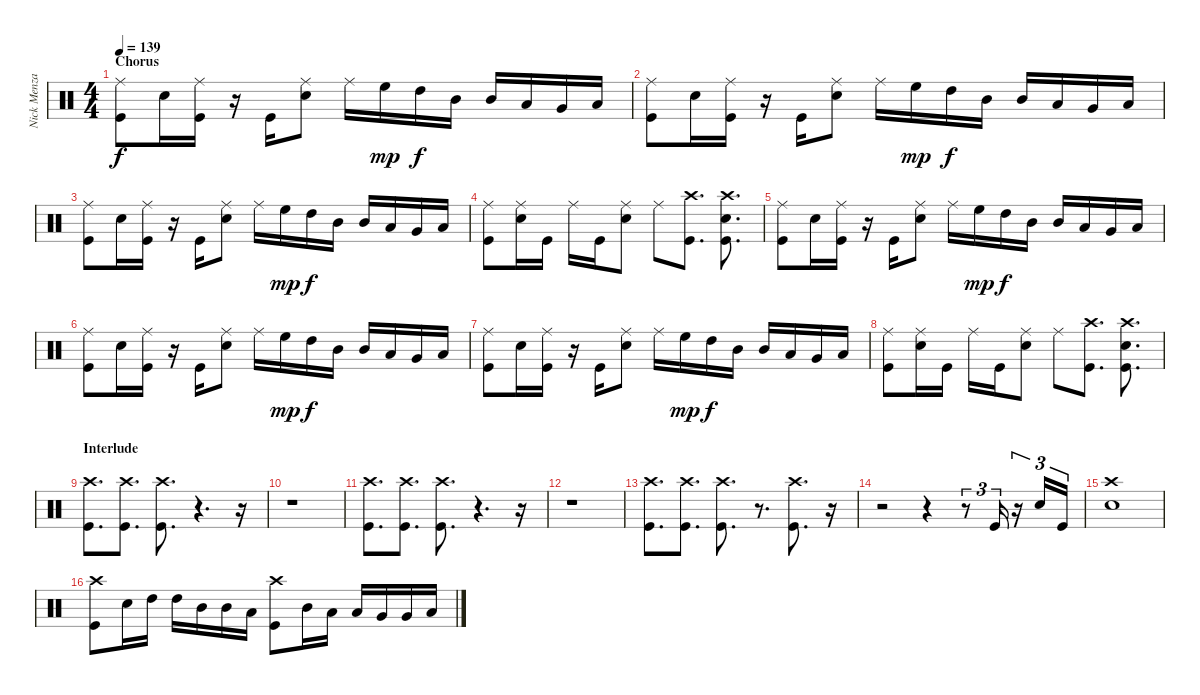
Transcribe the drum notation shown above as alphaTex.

\track ("Nick Menza" "Nick Menza") {instrument percussion}
\staff {score}
\articulation defaults
\ts (4 4)
\section ("" "Chorus")
\tempo 139
\clef neutral
\ks c
("Ride (middle)" "Kick (hit)").8{dy f} "Snare (hit) 2".16 ("Ride (middle)" "Kick (hit)").16 r.16 "Kick (hit)".16 ("Ride (middle)" "Snare (hit) 2").8 "Ride (middle)".16 "High Floor Tom (hit)".16{dy mp} "High Tom (hit)".16{dy f} "Mid Tom (hit)".16 "Mid Tom (hit)".16 "Low Tom (hit)".16 "Very Low Tom (hit)".16 "Low Floor Tom (hit)".16 |
("Ride (middle)" "Kick (hit)").8 "Snare (hit) 2".16 ("Ride (middle)" "Kick (hit)").16 r.16 "Kick (hit)".16 ("Ride (middle)" "Snare (hit) 2").8 "Ride (middle)".16 "High Floor Tom (hit)".16{dy mp} "High Tom (hit)".16{dy f} "Mid Tom (hit)".16 "Mid Tom (hit)".16 "Low Tom (hit)".16 "Very Low Tom (hit)".16 "Low Floor Tom (hit)".16 |
("Ride (middle)" "Kick (hit)").8 "Snare (hit) 2".16 ("Ride (middle)" "Kick (hit)").16 r.16 "Kick (hit)".16 ("Ride (middle)" "Snare (hit) 2").8 "Ride (middle)".16 "High Floor Tom (hit)".16{dy mp} "High Tom (hit)".16{dy f} "Mid Tom (hit)".16 "Mid Tom (hit)".16 "Low Tom (hit)".16 "Very Low Tom (hit)".16 "Low Floor Tom (hit)".16 |
("Ride (middle)" "Kick (hit)").8 ("Ride (middle)" "Snare (hit) 2").16 "Kick (hit)".16 "Ride (middle)".16 "Kick (hit)".16 ("Ride (middle)" "Snare (hit) 2").8 "Ride (middle)".8 ("Crash high (hit)" "Kick (hit)").8{d} ("Crash high (hit)" "Snare (hit) 2" "Kick (hit)").8{d} |
("Ride (middle)" "Kick (hit)").8 "Snare (hit) 2".16 ("Ride (middle)" "Kick (hit)").16 r.16 "Kick (hit)".16 ("Ride (middle)" "Snare (hit) 2").8 "Ride (middle)".16 "High Floor Tom (hit)".16{dy mp} "High Tom (hit)".16{dy f} "Mid Tom (hit)".16 "Mid Tom (hit)".16 "Low Tom (hit)".16 "Very Low Tom (hit)".16 "Low Floor Tom (hit)".16 |
("Ride (middle)" "Kick (hit)").8 "Snare (hit) 2".16 ("Ride (middle)" "Kick (hit)").16 r.16 "Kick (hit)".16 ("Ride (middle)" "Snare (hit) 2").8 "Ride (middle)".16 "High Floor Tom (hit)".16{dy mp} "High Tom (hit)".16{dy f} "Mid Tom (hit)".16 "Mid Tom (hit)".16 "Low Tom (hit)".16 "Very Low Tom (hit)".16 "Low Floor Tom (hit)".16 |
("Ride (middle)" "Kick (hit)").8 "Snare (hit) 2".16 ("Ride (middle)" "Kick (hit)").16 r.16 "Kick (hit)".16 ("Ride (middle)" "Snare (hit) 2").8 "Ride (middle)".16 "High Floor Tom (hit)".16{dy mp} "High Tom (hit)".16{dy f} "Mid Tom (hit)".16 "Mid Tom (hit)".16 "Low Tom (hit)".16 "Very Low Tom (hit)".16 "Low Floor Tom (hit)".16 |
("Ride (middle)" "Kick (hit)").8 ("Ride (middle)" "Snare (hit) 2").16 "Kick (hit)".16 "Ride (middle)".16 "Kick (hit)".16 ("Ride (middle)" "Snare (hit) 2").8 "Ride (middle)".8 ("Crash high (hit)" "Kick (hit)").8{d} ("Crash high (hit)" "Snare (hit) 2" "Kick (hit)").8{d} |
\section ("" "Interlude")
("Crash high (hit)" "Kick (hit)").8{d} ("Crash high (hit)" "Kick (hit)").8{d} ("Crash high (hit)" "Kick (hit)").8{d} r.4{d} r.16 |
r.1 |
("Crash high (hit)" "Kick (hit)").8{d} ("Crash high (hit)" "Kick (hit)").8{d} ("Crash high (hit)" "Kick (hit)").8{d} r.4{d} r.16 |
r.1 |
("Crash high (hit)" "Kick (hit)").8{d} ("Crash high (hit)" "Kick (hit)").8{d} ("Crash high (hit)" "Kick (hit)").8{d} r.8{d} ("Crash high (hit)" "Kick (hit)").8{d} r.16 |
r.2 r.4 r.8{tu (3 2)} "Kick (hit)".16{tu (3 2)} r.16{tu (3 2)} "Snare (hit) 2".16{tu (3 2)} "Kick (hit)".16{tu (3 2)} |
("Crash high (hit)" "Snare (hit) 2").1 |
("Crash high (hit)" "Kick (hit)").8 "Snare (hit) 2".16 "High Tom (hit)".16 "High Tom (hit)".16 "Mid Tom (hit)".16 "Mid Tom (hit)".16 "Low Tom (hit)".16 ("Crash high (hit)" "Kick (hit)").8 "Mid Tom (hit)".16 "Low Tom (hit)".16 "Low Tom (hit)".16 "Very Low Tom (hit)".16 "Very Low Tom (hit)".16 "Low Floor Tom (hit)".16
